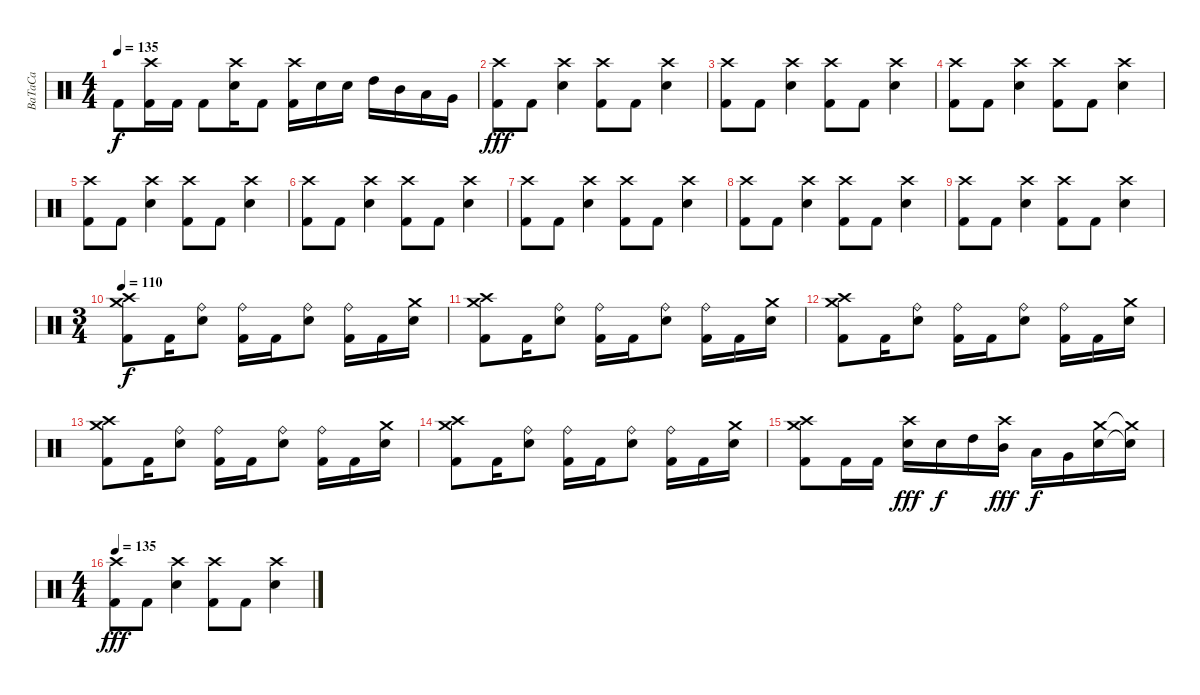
\track ("BaTaCa" "BaTaCa") {instrument percussion}
\staff {score}
\articulation defaults
\ts (4 4)
\tempo 135
\clef neutral
\ks c "Kick (hit) 2".8{dy f}
("Crash high (hit)" "Kick (hit) 2").16 "Kick (hit) 2".16 "Kick (hit) 2".8 ("Crash high (hit)" "Electric Snare (hit)").16 "Kick (hit) 2".8 ("Crash high (hit)" "Kick (hit) 2").16 "Electric Snare (hit)".16 "Electric Snare (hit)".16 "High Tom (hit)".16 "Mid Tom (hit)".16 "Low Tom (hit)".16 "Very Low Tom (hit)".16 |
("Crash high (hit)" "Kick (hit) 2").8{dy fff} "Kick (hit) 2".8 ("Crash high (hit)" "Electric Snare (hit)").4 ("Crash high (hit)" "Kick (hit) 2").8 "Kick (hit) 2".8 ("Crash high (hit)" "Electric Snare (hit)").4 |
("Crash high (hit)" "Kick (hit) 2").8 "Kick (hit) 2".8 ("Crash high (hit)" "Electric Snare (hit)").4 ("Crash high (hit)" "Kick (hit) 2").8 "Kick (hit) 2".8 ("Crash high (hit)" "Electric Snare (hit)").4 |
("Crash high (hit)" "Kick (hit) 2").8 "Kick (hit) 2".8 ("Crash high (hit)" "Electric Snare (hit)").4 ("Crash high (hit)" "Kick (hit) 2").8 "Kick (hit) 2".8 ("Crash high (hit)" "Electric Snare (hit)").4 |
("Crash high (hit)" "Kick (hit) 2").8 "Kick (hit) 2".8 ("Crash high (hit)" "Electric Snare (hit)").4 ("Crash high (hit)" "Kick (hit) 2").8 "Kick (hit) 2".8 ("Crash high (hit)" "Electric Snare (hit)").4 |
("Crash high (hit)" "Kick (hit) 2").8 "Kick (hit) 2".8 ("Crash high (hit)" "Electric Snare (hit)").4 ("Crash high (hit)" "Kick (hit) 2").8 "Kick (hit) 2".8 ("Crash high (hit)" "Electric Snare (hit)").4 |
("Crash high (hit)" "Kick (hit) 2").8 "Kick (hit) 2".8 ("Crash high (hit)" "Electric Snare (hit)").4 ("Crash high (hit)" "Kick (hit) 2").8 "Kick (hit) 2".8 ("Crash high (hit)" "Electric Snare (hit)").4 |
("Crash high (hit)" "Kick (hit) 2").8 "Kick (hit) 2".8 ("Crash high (hit)" "Electric Snare (hit)").4 ("Crash high (hit)" "Kick (hit) 2").8 "Kick (hit) 2".8 ("Crash high (hit)" "Electric Snare (hit)").4 |
("Crash high (hit)" "Kick (hit) 2").8 "Kick (hit) 2".8 ("Crash high (hit)" "Electric Snare (hit)").4 ("Crash high (hit)" "Kick (hit) 2").8 "Kick (hit) 2".8 ("Crash high (hit)" "Electric Snare (hit)").4 |
\ts (3 4)
\tempo 110
("Crash medium (hit)" "Crash high (hit)" "Kick (hit) 2").8{dy f} "Kick (hit) 2".16 ("Ride (bell)" "Electric Snare (hit)").8 ("Ride (bell)" "Kick (hit) 2").16 "Kick (hit) 2".16 ("Ride (bell)" "Electric Snare (hit)").8 ("Ride (bell)" "Kick (hit) 2").16 "Kick (hit) 2".16 ("Crash medium (hit)" "Electric Snare (hit)").16 |
("Crash medium (hit)" "Crash high (hit)" "Kick (hit) 2").8 "Kick (hit) 2".16 ("Ride (bell)" "Electric Snare (hit)").8 ("Ride (bell)" "Kick (hit) 2").16 "Kick (hit) 2".16 ("Ride (bell)" "Electric Snare (hit)").8 ("Ride (bell)" "Kick (hit) 2").16 "Kick (hit) 2".16 ("Crash medium (hit)" "Electric Snare (hit)").16 |
("Crash medium (hit)" "Crash high (hit)" "Kick (hit) 2").8 "Kick (hit) 2".16 ("Ride (bell)" "Electric Snare (hit)").8 ("Ride (bell)" "Kick (hit) 2").16 "Kick (hit) 2".16 ("Ride (bell)" "Electric Snare (hit)").8 ("Ride (bell)" "Kick (hit) 2").16 "Kick (hit) 2".16 ("Crash medium (hit)" "Electric Snare (hit)").16 |
("Crash medium (hit)" "Crash high (hit)" "Kick (hit) 2").8 "Kick (hit) 2".16 ("Ride (bell)" "Electric Snare (hit)").8 ("Ride (bell)" "Kick (hit) 2").16 "Kick (hit) 2".16 ("Ride (bell)" "Electric Snare (hit)").8 ("Ride (bell)" "Kick (hit) 2").16 "Kick (hit) 2".16 ("Crash medium (hit)" "Electric Snare (hit)").16 |
("Crash medium (hit)" "Crash high (hit)" "Kick (hit) 2").8 "Kick (hit) 2".16 ("Ride (bell)" "Electric Snare (hit)").8 ("Ride (bell)" "Kick (hit) 2").16 "Kick (hit) 2".16 ("Ride (bell)" "Electric Snare (hit)").8 ("Ride (bell)" "Kick (hit) 2").16 "Kick (hit) 2".16 ("Crash medium (hit)" "Electric Snare (hit)").16 |
("Crash medium (hit)" "Crash high (hit)" "Kick (hit) 2").8 "Kick (hit) 2".16 "Kick (hit) 2".16 ("Crash high (hit)" "Electric Snare (hit)").16{dy fff} "Electric Snare (hit)".16{dy f} "High Tom (hit)".16 ("Crash high (hit)" "Mid Tom (hit)").16{dy fff} "Low Tom (hit)".16{dy f} "Very Low Tom (hit)".16 ("Crash medium (hit)" "Electric Snare (hit)").16 ("Crash medium (hit)"{t} "Electric Snare (hit)"{t}).16 |
\ts (4 4)
\tempo 135
("Crash high (hit)" "Kick (hit) 2").8{dy fff} "Kick (hit) 2".8 ("Crash high (hit)" "Electric Snare (hit)").4 ("Crash high (hit)" "Kick (hit) 2").8 "Kick (hit) 2".8 ("Crash high (hit)" "Electric Snare (hit)").4
